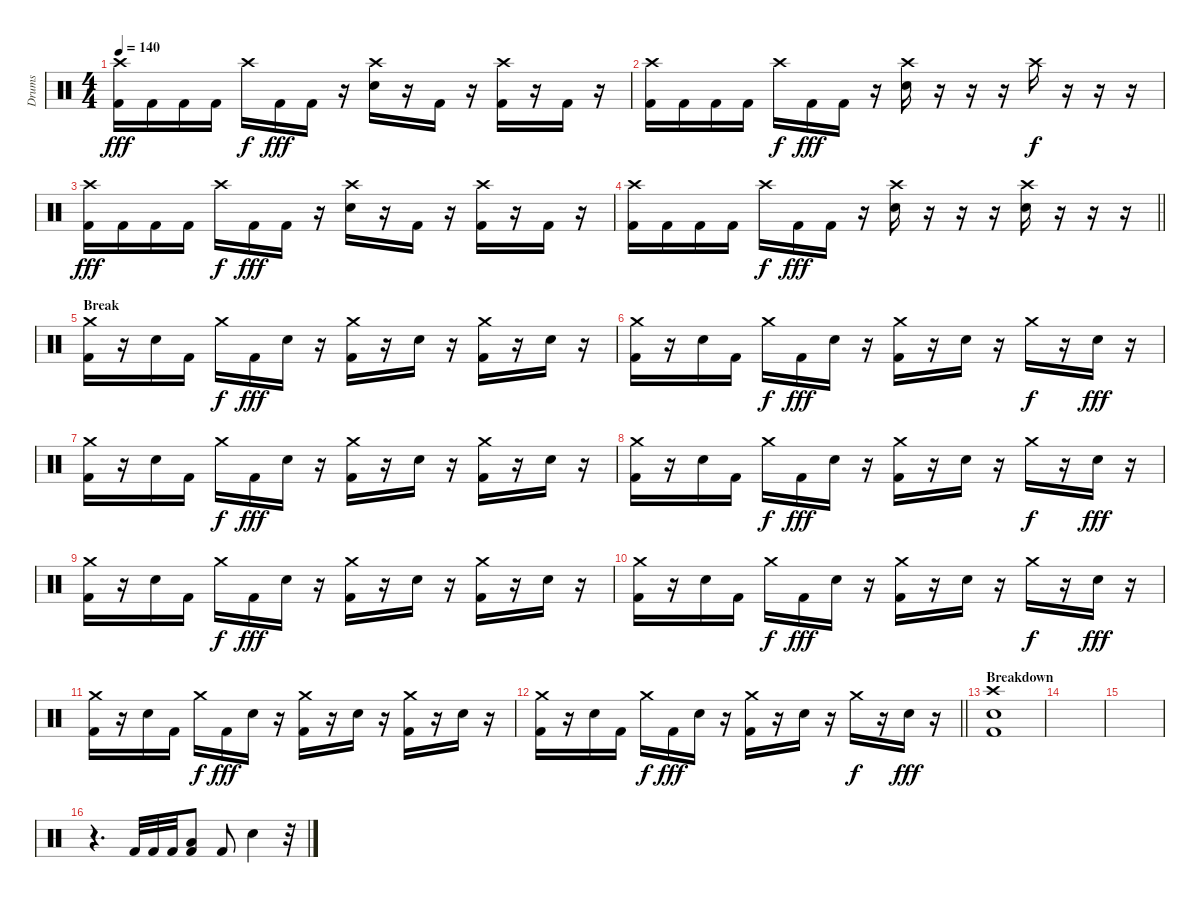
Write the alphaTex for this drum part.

\track ("Drums" "Drums") {instrument percussion}
\staff {score}
\articulation defaults
\ts (4 4)
\tempo 140
\clef neutral
\ks c
("Crash high (hit)" "Kick (hit) 2").16{dy fff} "Kick (hit) 2".16 "Kick (hit) 2".16 "Kick (hit) 2".16 "Crash high (hit)".16{dy f} "Kick (hit) 2".16{dy fff} "Kick (hit) 2".16 r.16 ("Crash high (hit)" "Electric Snare (hit)").16 r.16 "Kick (hit) 2".16 r.16 ("Crash high (hit)" "Kick (hit) 2").16 r.16 "Kick (hit) 2".16 r.16 |
("Crash high (hit)" "Kick (hit) 2").16 "Kick (hit) 2".16 "Kick (hit) 2".16 "Kick (hit) 2".16 "Crash high (hit)".16{dy f} "Kick (hit) 2".16{dy fff} "Kick (hit) 2".16 r.16 ("Crash high (hit)" "Electric Snare (hit)").16 r.16 r.16 r.16 "Crash high (hit)".16{dy f} r.16 r.16 r.16 |
("Crash high (hit)" "Kick (hit) 2").16{dy fff} "Kick (hit) 2".16 "Kick (hit) 2".16 "Kick (hit) 2".16 "Crash high (hit)".16{dy f} "Kick (hit) 2".16{dy fff} "Kick (hit) 2".16 r.16 ("Crash high (hit)" "Electric Snare (hit)").16 r.16 "Kick (hit) 2".16 r.16 ("Crash high (hit)" "Kick (hit) 2").16 r.16 "Kick (hit) 2".16 r.16 |
\barLineRight lightlight
("Crash high (hit)" "Kick (hit) 2").16 "Kick (hit) 2".16 "Kick (hit) 2".16 "Kick (hit) 2".16 "Crash high (hit)".16{dy f} "Kick (hit) 2".16{dy fff} "Kick (hit) 2".16 r.16 ("Crash high (hit)" "Electric Snare (hit)").16 r.16 r.16 r.16 ("Crash high (hit)" "Electric Snare (hit)").16 r.16 r.16 r.16 |
\section ("" "Break")
("Crash medium (hit)" "Kick (hit) 2").16 r.16 "Electric Snare (hit)".16 "Kick (hit) 2".16 "Crash medium (hit)".16{dy f} "Kick (hit) 2".16{dy fff} "Electric Snare (hit)".16 r.16 ("Crash medium (hit)" "Kick (hit) 2").16 r.16 "Electric Snare (hit)".16 r.16 ("Crash medium (hit)" "Kick (hit) 2").16 r.16 "Electric Snare (hit)".16 r.16 |
("Crash medium (hit)" "Kick (hit) 2").16 r.16 "Electric Snare (hit)".16 "Kick (hit) 2".16 "Crash medium (hit)".16{dy f} "Kick (hit) 2".16{dy fff} "Electric Snare (hit)".16 r.16 ("Crash medium (hit)" "Kick (hit) 2").16 r.16 "Electric Snare (hit)".16 r.16 "Crash medium (hit)".16{dy f} r.16 "Electric Snare (hit)".16{dy fff} r.16 |
("Crash medium (hit)" "Kick (hit) 2").16 r.16 "Electric Snare (hit)".16 "Kick (hit) 2".16 "Crash medium (hit)".16{dy f} "Kick (hit) 2".16{dy fff} "Electric Snare (hit)".16 r.16 ("Crash medium (hit)" "Kick (hit) 2").16 r.16 "Electric Snare (hit)".16 r.16 ("Crash medium (hit)" "Kick (hit) 2").16 r.16 "Electric Snare (hit)".16 r.16 |
("Crash medium (hit)" "Kick (hit) 2").16 r.16 "Electric Snare (hit)".16 "Kick (hit) 2".16 "Crash medium (hit)".16{dy f} "Kick (hit) 2".16{dy fff} "Electric Snare (hit)".16 r.16 ("Crash medium (hit)" "Kick (hit) 2").16 r.16 "Electric Snare (hit)".16 r.16 "Crash medium (hit)".16{dy f} r.16 "Electric Snare (hit)".16{dy fff} r.16 |
("Crash medium (hit)" "Kick (hit) 2").16 r.16 "Electric Snare (hit)".16 "Kick (hit) 2".16 "Crash medium (hit)".16{dy f} "Kick (hit) 2".16{dy fff} "Electric Snare (hit)".16 r.16 ("Crash medium (hit)" "Kick (hit) 2").16 r.16 "Electric Snare (hit)".16 r.16 ("Crash medium (hit)" "Kick (hit) 2").16 r.16 "Electric Snare (hit)".16 r.16 |
("Crash medium (hit)" "Kick (hit) 2").16 r.16 "Electric Snare (hit)".16 "Kick (hit) 2".16 "Crash medium (hit)".16{dy f} "Kick (hit) 2".16{dy fff} "Electric Snare (hit)".16 r.16 ("Crash medium (hit)" "Kick (hit) 2").16 r.16 "Electric Snare (hit)".16 r.16 "Crash medium (hit)".16{dy f} r.16 "Electric Snare (hit)".16{dy fff} r.16 |
("Crash medium (hit)" "Kick (hit) 2").16 r.16 "Electric Snare (hit)".16 "Kick (hit) 2".16 "Crash medium (hit)".16{dy f} "Kick (hit) 2".16{dy fff} "Electric Snare (hit)".16 r.16 ("Crash medium (hit)" "Kick (hit) 2").16 r.16 "Electric Snare (hit)".16 r.16 ("Crash medium (hit)" "Kick (hit) 2").16 r.16 "Electric Snare (hit)".16 r.16 |
\barLineRight lightlight
("Crash medium (hit)" "Kick (hit) 2").16 r.16 "Electric Snare (hit)".16 "Kick (hit) 2".16 "Crash medium (hit)".16{dy f} "Kick (hit) 2".16{dy fff} "Electric Snare (hit)".16 r.16 ("Crash medium (hit)" "Kick (hit) 2").16 r.16 "Electric Snare (hit)".16 r.16 "Crash medium (hit)".16{dy f} r.16 "Electric Snare (hit)".16{dy fff} r.16 |
\section ("" "Breakdown")
("Crash high (hit)" "Electric Snare (hit)" "Kick (hit) 2").1 |
|
|
r.4{d} "Kick (hit) 2".32 "Kick (hit) 2".32 "Kick (hit) 2".32 ("Low Tom (hit)" "Kick (hit) 2").8 "Kick (hit) 2".8 "Electric Snare (hit)".4 r.32
